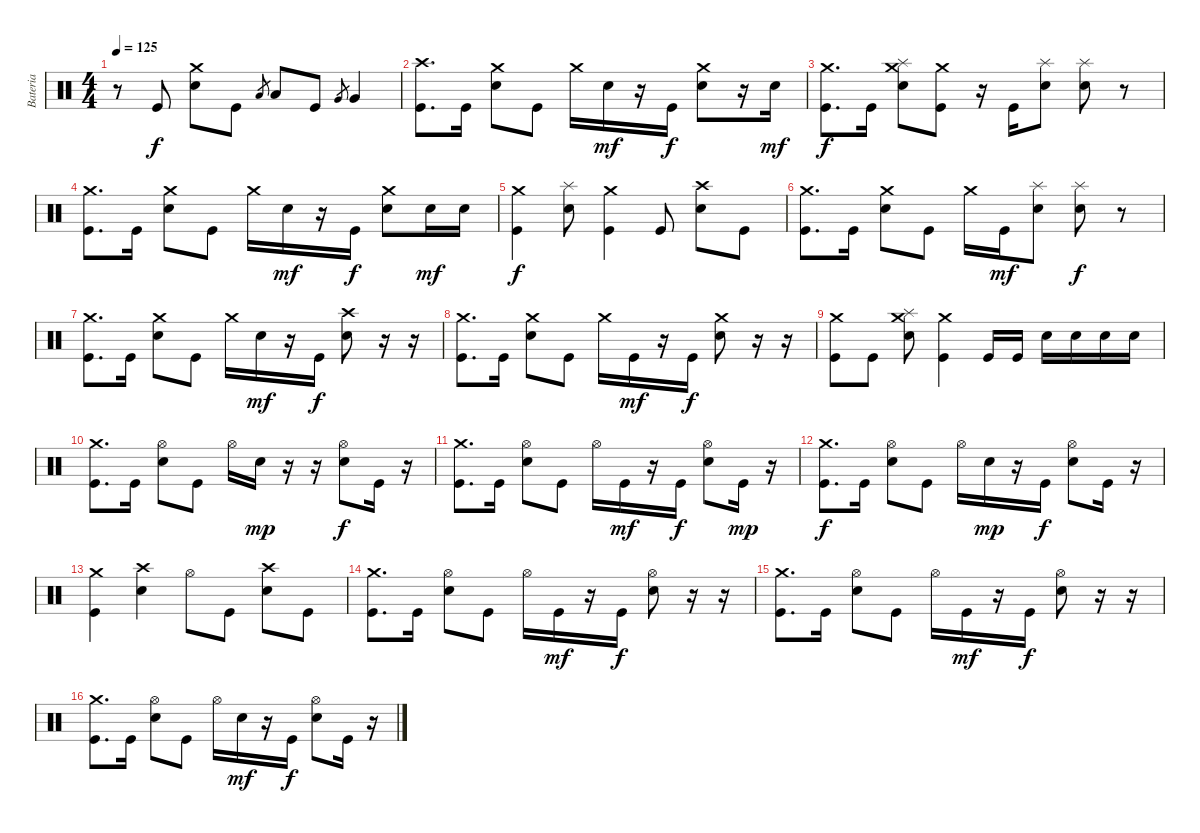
\track ("Bateria" "Bateria") {instrument percussion}
\staff {score}
\articulation defaults
\ts (4 4)
\tempo 125
\clef neutral
\ks c
r.8{dy f} "Kick (hit)".8 ("Crash medium (hit)" "Electric Snare (hit)").8 "Kick (hit)".8 "Low Tom (hit)".8{gr} "Low Tom (hit)".8 "Kick (hit)".8 "Very Low Tom (hit)".8{gr} "Very Low Tom (hit)".4 |
("Crash high (hit)" "Kick (hit)").8{d} "Kick (hit)".16 ("Crash medium (hit)" "Electric Snare (hit)").8 "Kick (hit)".8 "Crash medium (hit)".16 "Electric Snare (hit)".16{dy mf} r.16 "Kick (hit)".16{dy f} ("Crash medium (hit)" "Electric Snare (hit)").8 r.16 "Electric Snare (hit)".16{dy mf} |
("Crash medium (hit)" "Kick (hit)").8{d dy f} "Kick (hit)".16 ("Splash (hit)" "Electric Snare (hit)" "Crash medium (hit)").8 ("Crash medium (hit)" "Kick (hit)").8 r.16 "Kick (hit)".16 ("Splash (hit)" "Electric Snare (hit)").8 ("Splash (hit)" "Electric Snare (hit)").8 r.8 |
("Crash medium (hit)" "Kick (hit)").8{d} "Kick (hit)".16 ("Crash medium (hit)" "Electric Snare (hit)").8 "Kick (hit)".8 "Crash medium (hit)".16 "Electric Snare (hit)".16{dy mf} r.16 "Kick (hit)".16{dy f} ("Crash medium (hit)" "Electric Snare (hit)").8 "Electric Snare (hit)".16{dy mf} "Electric Snare (hit)".16 |
("Crash medium (hit)" "Kick (hit)").4{dy f} ("Splash (hit)" "Electric Snare (hit)").8 ("Crash medium (hit)" "Kick (hit)").4 "Kick (hit)".8 ("Crash high (hit)" "Electric Snare (hit)").8 "Kick (hit)".8 |
("Crash medium (hit)" "Kick (hit)").8{d} "Kick (hit)".16 ("Crash medium (hit)" "Electric Snare (hit)").8 "Kick (hit)".8 "Crash medium (hit)".16 "Kick (hit)".16{dy mf} ("Splash (hit)" "Electric Snare (hit)").8 ("Splash (hit)" "Electric Snare (hit)").8{dy f} r.8 |
("Crash medium (hit)" "Kick (hit)").8{d} "Kick (hit)".16 ("Crash medium (hit)" "Electric Snare (hit)").8 "Kick (hit)".8 "Crash medium (hit)".16 "Electric Snare (hit)".16{dy mf} r.16 "Kick (hit)".16{dy f} ("Crash high (hit)" "Electric Snare (hit)").8 r.16 r.16 |
("Crash medium (hit)" "Kick (hit)").8{d} "Kick (hit)".16 ("Crash medium (hit)" "Electric Snare (hit)").8 "Kick (hit)".8 "Crash medium (hit)".16 "Kick (hit)".16{dy mf} r.16 "Kick (hit)".16{dy f} ("Crash medium (hit)" "Electric Snare (hit)").8 r.16 r.16 |
("Crash medium (hit)" "Kick (hit)").8 "Kick (hit)".8 ("Splash (hit)" "Electric Snare (hit)" "Crash medium (hit)").8 ("Crash medium (hit)" "Kick (hit)").4 "Kick (hit)".16 "Kick (hit)".16 "Electric Snare (hit)".16 "Electric Snare (hit)".16 "Electric Snare (hit)".16 "Electric Snare (hit)".16 |
("Crash medium (hit)" "Kick (hit)").8{d} "Kick (hit)".16 ("Hi-Hat (open)" "Electric Snare (hit)").8 "Kick (hit)".8 "Hi-Hat (open)".16 "Electric Snare (hit)".16{dy mp} r.16 r.16 ("Hi-Hat (open)" "Electric Snare (hit)").8{dy f} "Kick (hit)".16 r.16 |
("Crash medium (hit)" "Kick (hit)").8{d} "Kick (hit)".16 ("Hi-Hat (open)" "Electric Snare (hit)").8 "Kick (hit)".8 "Hi-Hat (open)".16 "Kick (hit)".16{dy mf} r.16 "Kick (hit)".16{dy f} ("Hi-Hat (open)" "Electric Snare (hit)").8 "Kick (hit)".16{dy mp} r.16 |
("Crash medium (hit)" "Kick (hit)").8{d dy f} "Kick (hit)".16 ("Hi-Hat (open)" "Electric Snare (hit)").8 "Kick (hit)".8 "Hi-Hat (open)".16 "Electric Snare (hit)".16{dy mp} r.16 "Kick (hit)".16{dy f} ("Hi-Hat (open)" "Electric Snare (hit)").8 "Kick (hit)".16 r.16 |
("Crash medium (hit)" "Kick (hit)").4 ("Crash high (hit)" "Electric Snare (hit)").4 "Hi-Hat (open)".8 "Kick (hit)".8 ("Crash high (hit)" "Electric Snare (hit)").8 "Kick (hit)".8 |
("Crash medium (hit)" "Kick (hit)").8{d} "Kick (hit)".16 ("Hi-Hat (open)" "Electric Snare (hit)").8 "Kick (hit)".8 "Hi-Hat (open)".16 "Kick (hit)".16{dy mf} r.16 "Kick (hit)".16{dy f} ("Hi-Hat (open)" "Electric Snare (hit)").8 r.16 r.16 |
("Crash medium (hit)" "Kick (hit)").8{d} "Kick (hit)".16 ("Hi-Hat (open)" "Electric Snare (hit)").8 "Kick (hit)".8 "Hi-Hat (open)".16 "Kick (hit)".16{dy mf} r.16 "Kick (hit)".16{dy f} ("Hi-Hat (open)" "Electric Snare (hit)").8 r.16 r.16 |
("Crash medium (hit)" "Kick (hit)").8{d} "Kick (hit)".16 ("Hi-Hat (open)" "Electric Snare (hit)").8 "Kick (hit)".8 "Hi-Hat (open)".16 "Electric Snare (hit)".16{dy mf} r.16 "Kick (hit)".16{dy f} ("Hi-Hat (open)" "Electric Snare (hit)").8 "Kick (hit)".16 r.16
